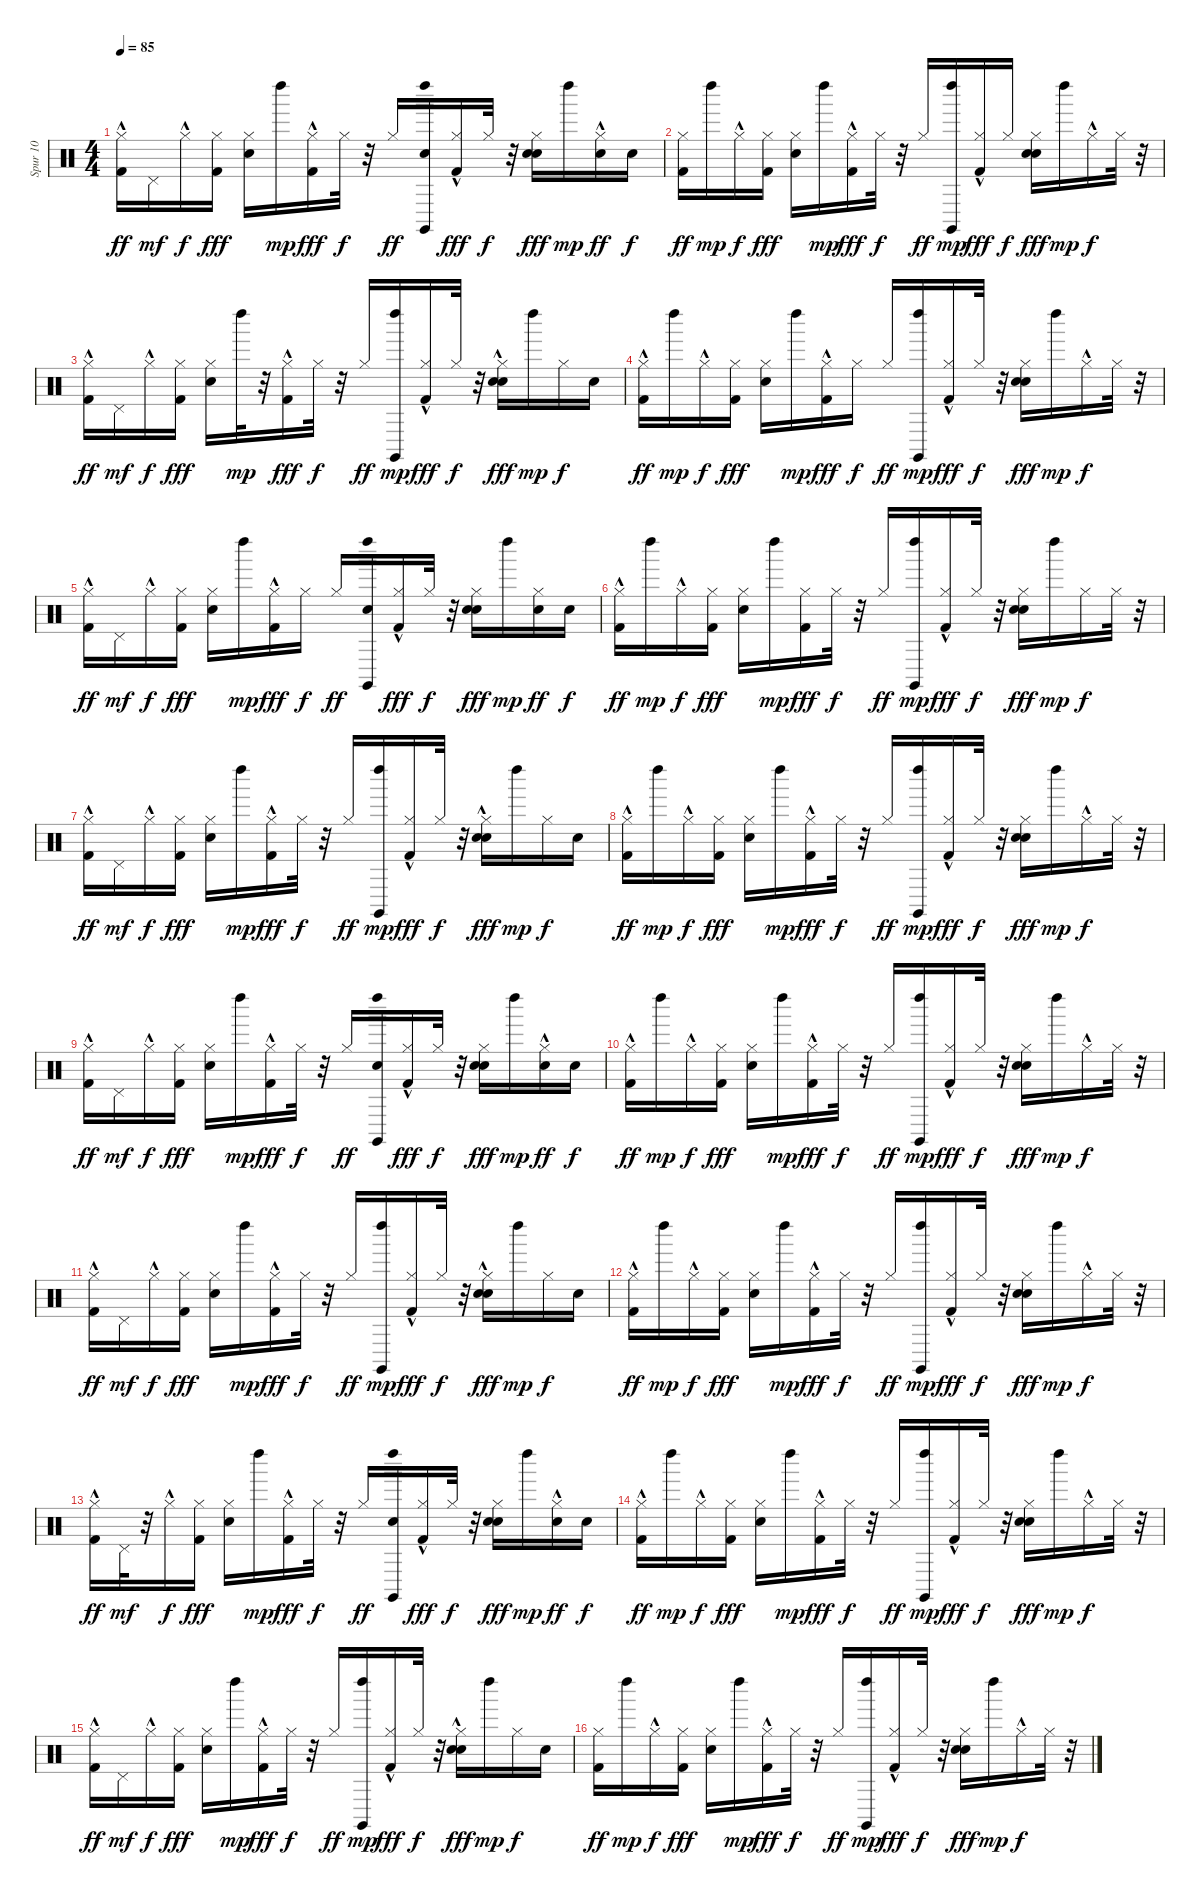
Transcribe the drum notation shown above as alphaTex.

\track ("Spur 10" "Spur 10") {instrument percussion}
\staff {score}
\articulation defaults
\ts (4 4)
\tempo 85
\clef neutral
\ks c
("Kick (hit) 2"{hac} "Hi-Hat (closed)").16{dy ff} "Pedal Hi-Hat (hit)".16{dy mf} "Hi-Hat (closed)"{hac}.16{dy f} ("Kick (hit) 2" "Hi-Hat (closed)").16{dy fff} ("Hi-Hat (closed)" "Snare (hit) 2").16 "Left Maraca (hit)".16{dy mp} ("Kick (hit) 2" "Hi-Hat (closed)"{hac}).16{dy fff} "Hi-Hat (closed)".32{dy f} r.32 "Hi-Hat (closed)".16{dy ff} ("Left Maraca (hit)" "Claves (hit)" "Snare (hit) 2").16 ("Kick (hit) 2"{hac} "Hi-Hat (closed)").16{dy fff} "Hi-Hat (closed)".32{dy f} r.32 ("Hi-Hat (closed)" "Snare (hit) 2" "Hand Clap (hit)").16{dy fff} "Left Maraca (hit)".16{dy mp} ("Hi-Hat (closed)" "Snare (hit) 2"{hac}).16{dy ff} "Snare (hit) 2".16{dy f} |
("Kick (hit) 2" "Hi-Hat (closed)").16{dy ff} "Left Maraca (hit)".16{dy mp} "Hi-Hat (closed)"{hac}.16{dy f} ("Kick (hit) 2" "Hi-Hat (closed)").16{dy fff} ("Hi-Hat (closed)" "Snare (hit) 2").16 "Left Maraca (hit)".16{dy mp} ("Kick (hit) 2" "Hi-Hat (closed)"{hac}).16{dy fff} "Hi-Hat (closed)".32{dy f} r.32 "Hi-Hat (closed)".16{dy ff} ("Left Maraca (hit)" "Claves (hit)").16{dy mp} ("Kick (hit) 2"{hac} "Hi-Hat (closed)"{hac}).16{dy fff} "Hi-Hat (closed)".16{dy f} ("Hi-Hat (closed)" "Snare (hit) 2" "Hand Clap (hit)").16{dy fff} "Left Maraca (hit)".16{dy mp} "Hi-Hat (closed)"{hac}.16{dy f} "Hi-Hat (closed)".32 r.32 |
("Kick (hit) 2"{hac} "Hi-Hat (closed)").16{dy ff} "Pedal Hi-Hat (hit)".16{dy mf} "Hi-Hat (closed)"{hac}.16{dy f} ("Kick (hit) 2" "Hi-Hat (closed)").16{dy fff} ("Hi-Hat (closed)" "Snare (hit) 2").16 "Left Maraca (hit)".32{dy mp} r.32 ("Kick (hit) 2" "Hi-Hat (closed)"{hac}).16{dy fff} "Hi-Hat (closed)".32{dy f} r.32 "Hi-Hat (closed)".16{dy ff} ("Left Maraca (hit)" "Claves (hit)").16{dy mp} ("Kick (hit) 2"{hac} "Hi-Hat (closed)"{hac}).16{dy fff} "Hi-Hat (closed)".32{dy f} r.32 ("Hi-Hat (closed)" "Snare (hit) 2"{hac} "Hand Clap (hit)").16{dy fff} "Left Maraca (hit)".16{dy mp} "Hi-Hat (closed)".16{dy f} "Snare (hit) 2".16 |
("Kick (hit) 2"{hac} "Hi-Hat (closed)").16{dy ff} "Left Maraca (hit)".16{dy mp} "Hi-Hat (closed)"{hac}.16{dy f} ("Kick (hit) 2" "Hi-Hat (closed)").16{dy fff} ("Hi-Hat (closed)" "Snare (hit) 2").16 "Left Maraca (hit)".16{dy mp} ("Kick (hit) 2" "Hi-Hat (closed)"{hac}).16{dy fff} "Hi-Hat (closed)".16{dy f} "Hi-Hat (closed)".16{dy ff} ("Left Maraca (hit)" "Claves (hit)").16{dy mp} ("Kick (hit) 2"{hac} "Hi-Hat (closed)"{hac}).16{dy fff} "Hi-Hat (closed)".32{dy f} r.32 ("Hi-Hat (closed)" "Snare (hit) 2" "Hand Clap (hit)").16{dy fff} "Left Maraca (hit)".16{dy mp} "Hi-Hat (closed)"{hac}.16{dy f} "Hi-Hat (closed)".32 r.32 |
("Kick (hit) 2"{hac} "Hi-Hat (closed)").16{dy ff} "Pedal Hi-Hat (hit)".16{dy mf} "Hi-Hat (closed)"{hac}.16{dy f} ("Kick (hit) 2" "Hi-Hat (closed)").16{dy fff} ("Hi-Hat (closed)" "Snare (hit) 2").16 "Left Maraca (hit)".16{dy mp} ("Kick (hit) 2" "Hi-Hat (closed)"{hac}).16{dy fff} "Hi-Hat (closed)".16{dy f} "Hi-Hat (closed)".16{dy ff} ("Left Maraca (hit)" "Claves (hit)" "Snare (hit) 2").16 ("Kick (hit) 2"{hac} "Hi-Hat (closed)"{hac}).16{dy fff} "Hi-Hat (closed)".32{dy f} r.32 ("Hi-Hat (closed)" "Snare (hit) 2" "Hand Clap (hit)").16{dy fff} "Left Maraca (hit)".16{dy mp} ("Hi-Hat (closed)" "Snare (hit) 2").16{dy ff} "Snare (hit) 2".16{dy f} |
("Kick (hit) 2"{hac} "Hi-Hat (closed)").16{dy ff} "Left Maraca (hit)".16{dy mp} "Hi-Hat (closed)"{hac}.16{dy f} ("Kick (hit) 2" "Hi-Hat (closed)").16{dy fff} ("Hi-Hat (closed)" "Snare (hit) 2").16 "Left Maraca (hit)".16{dy mp} ("Kick (hit) 2" "Hi-Hat (closed)").16{dy fff} "Hi-Hat (closed)".32{dy f} r.32 "Hi-Hat (closed)".16{dy ff} ("Left Maraca (hit)" "Claves (hit)").16{dy mp} ("Kick (hit) 2"{hac} "Hi-Hat (closed)"{hac}).16{dy fff} "Hi-Hat (closed)".32{dy f} r.32 ("Hi-Hat (closed)" "Snare (hit) 2" "Hand Clap (hit)").16{dy fff} "Left Maraca (hit)".16{dy mp} "Hi-Hat (closed)".16{dy f} "Hi-Hat (closed)".32 r.32 |
("Kick (hit) 2"{hac} "Hi-Hat (closed)").16{dy ff} "Pedal Hi-Hat (hit)".16{dy mf} "Hi-Hat (closed)"{hac}.16{dy f} ("Kick (hit) 2" "Hi-Hat (closed)").16{dy fff} ("Hi-Hat (closed)" "Snare (hit) 2").16 "Left Maraca (hit)".16{dy mp} ("Kick (hit) 2" "Hi-Hat (closed)"{hac}).16{dy fff} "Hi-Hat (closed)".32{dy f} r.32 "Hi-Hat (closed)".16{dy ff} ("Left Maraca (hit)" "Claves (hit)").16{dy mp} ("Kick (hit) 2"{hac} "Hi-Hat (closed)"{hac}).16{dy fff} "Hi-Hat (closed)".32{dy f} r.32 ("Hi-Hat (closed)" "Snare (hit) 2"{hac} "Hand Clap (hit)").16{dy fff} "Left Maraca (hit)".16{dy mp} "Hi-Hat (closed)".16{dy f} "Snare (hit) 2".16 |
("Kick (hit) 2"{hac} "Hi-Hat (closed)").16{dy ff} "Left Maraca (hit)".16{dy mp} "Hi-Hat (closed)"{hac}.16{dy f} ("Kick (hit) 2" "Hi-Hat (closed)").16{dy fff} ("Hi-Hat (closed)" "Snare (hit) 2").16 "Left Maraca (hit)".16{dy mp} ("Kick (hit) 2" "Hi-Hat (closed)"{hac}).16{dy fff} "Hi-Hat (closed)".32{dy f} r.32 "Hi-Hat (closed)".16{dy ff} ("Left Maraca (hit)" "Claves (hit)").16{dy mp} ("Kick (hit) 2" "Hi-Hat (closed)"{hac}).16{dy fff} "Hi-Hat (closed)".32{dy f} r.32 ("Hi-Hat (closed)" "Snare (hit) 2" "Hand Clap (hit)").16{dy fff} "Left Maraca (hit)".16{dy mp} "Hi-Hat (closed)"{hac}.16{dy f} "Hi-Hat (closed)".32 r.32 |
("Kick (hit) 2"{hac} "Hi-Hat (closed)").16{dy ff} "Pedal Hi-Hat (hit)".16{dy mf} "Hi-Hat (closed)"{hac}.16{dy f} ("Kick (hit) 2" "Hi-Hat (closed)").16{dy fff} ("Hi-Hat (closed)" "Snare (hit) 2").16 "Left Maraca (hit)".16{dy mp} ("Kick (hit) 2" "Hi-Hat (closed)"{hac}).16{dy fff} "Hi-Hat (closed)".32{dy f} r.32 "Hi-Hat (closed)".16{dy ff} ("Left Maraca (hit)" "Claves (hit)" "Snare (hit) 2").16 ("Kick (hit) 2"{hac} "Hi-Hat (closed)"{hac}).16{dy fff} "Hi-Hat (closed)".32{dy f} r.32 ("Hi-Hat (closed)" "Snare (hit) 2" "Hand Clap (hit)").16{dy fff} "Left Maraca (hit)".16{dy mp} ("Hi-Hat (closed)" "Snare (hit) 2"{hac}).16{dy ff} "Snare (hit) 2".16{dy f} |
("Kick (hit) 2"{hac} "Hi-Hat (closed)").16{dy ff} "Left Maraca (hit)".16{dy mp} "Hi-Hat (closed)"{hac}.16{dy f} ("Kick (hit) 2" "Hi-Hat (closed)").16{dy fff} ("Hi-Hat (closed)" "Snare (hit) 2").16 "Left Maraca (hit)".16{dy mp} ("Kick (hit) 2" "Hi-Hat (closed)"{hac}).16{dy fff} "Hi-Hat (closed)".32{dy f} r.32 "Hi-Hat (closed)".16{dy ff} ("Left Maraca (hit)" "Claves (hit)").16{dy mp} ("Kick (hit) 2"{hac} "Hi-Hat (closed)"{hac}).16{dy fff} "Hi-Hat (closed)".32{dy f} r.32 ("Hi-Hat (closed)" "Snare (hit) 2" "Hand Clap (hit)").16{dy fff} "Left Maraca (hit)".16{dy mp} "Hi-Hat (closed)"{hac}.16{dy f} "Hi-Hat (closed)".32 r.32 |
("Kick (hit) 2"{hac} "Hi-Hat (closed)").16{dy ff} "Pedal Hi-Hat (hit)".16{dy mf} "Hi-Hat (closed)"{hac}.16{dy f} ("Kick (hit) 2" "Hi-Hat (closed)").16{dy fff} ("Hi-Hat (closed)" "Snare (hit) 2").16 "Left Maraca (hit)".16{dy mp} ("Kick (hit) 2" "Hi-Hat (closed)"{hac}).16{dy fff} "Hi-Hat (closed)".32{dy f} r.32 "Hi-Hat (closed)".16{dy ff} ("Left Maraca (hit)" "Claves (hit)").16{dy mp} ("Kick (hit) 2"{hac} "Hi-Hat (closed)"{hac}).16{dy fff} "Hi-Hat (closed)".32{dy f} r.32 ("Hi-Hat (closed)" "Snare (hit) 2"{hac} "Hand Clap (hit)").16{dy fff} "Left Maraca (hit)".16{dy mp} "Hi-Hat (closed)".16{dy f} "Snare (hit) 2".16 |
("Kick (hit) 2"{hac} "Hi-Hat (closed)").16{dy ff} "Left Maraca (hit)".16{dy mp} "Hi-Hat (closed)"{hac}.16{dy f} ("Kick (hit) 2" "Hi-Hat (closed)").16{dy fff} ("Hi-Hat (closed)" "Snare (hit) 2").16 "Left Maraca (hit)".16{dy mp} ("Kick (hit) 2" "Hi-Hat (closed)"{hac}).16{dy fff} "Hi-Hat (closed)".32{dy f} r.32 "Hi-Hat (closed)".16{dy ff} ("Left Maraca (hit)" "Claves (hit)").16{dy mp} ("Kick (hit) 2"{hac} "Hi-Hat (closed)"{hac}).16{dy fff} "Hi-Hat (closed)".32{dy f} r.32 ("Hi-Hat (closed)" "Snare (hit) 2" "Hand Clap (hit)").16{dy fff} "Left Maraca (hit)".16{dy mp} "Hi-Hat (closed)"{hac}.16{dy f} "Hi-Hat (closed)".32 r.32 |
("Kick (hit) 2"{hac} "Hi-Hat (closed)").16{dy ff} "Pedal Hi-Hat (hit)".32{dy mf} r.32 "Hi-Hat (closed)"{hac}.16{dy f} ("Kick (hit) 2" "Hi-Hat (closed)").16{dy fff} ("Hi-Hat (closed)" "Snare (hit) 2").16 "Left Maraca (hit)".16{dy mp} ("Kick (hit) 2" "Hi-Hat (closed)"{hac}).16{dy fff} "Hi-Hat (closed)".32{dy f} r.32 "Hi-Hat (closed)".16{dy ff} ("Left Maraca (hit)" "Claves (hit)" "Snare (hit) 2").16 ("Kick (hit) 2" "Hi-Hat (closed)"{hac}).16{dy fff} "Hi-Hat (closed)".32{dy f} r.32 ("Hi-Hat (closed)" "Snare (hit) 2" "Hand Clap (hit)").16{dy fff} "Left Maraca (hit)".16{dy mp} ("Hi-Hat (closed)" "Snare (hit) 2"{hac}).16{dy ff} "Snare (hit) 2".16{dy f} |
("Kick (hit) 2"{hac} "Hi-Hat (closed)").16{dy ff} "Left Maraca (hit)".16{dy mp} "Hi-Hat (closed)"{hac}.16{dy f} ("Kick (hit) 2" "Hi-Hat (closed)").16{dy fff} ("Hi-Hat (closed)" "Snare (hit) 2").16 "Left Maraca (hit)".16{dy mp} ("Kick (hit) 2" "Hi-Hat (closed)"{hac}).16{dy fff} "Hi-Hat (closed)".32{dy f} r.32 "Hi-Hat (closed)".16{dy ff} ("Left Maraca (hit)" "Claves (hit)").16{dy mp} ("Kick (hit) 2"{hac} "Hi-Hat (closed)"{hac}).16{dy fff} "Hi-Hat (closed)".32{dy f} r.32 ("Hi-Hat (closed)" "Snare (hit) 2" "Hand Clap (hit)").16{dy fff} "Left Maraca (hit)".16{dy mp} "Hi-Hat (closed)"{hac}.16{dy f} "Hi-Hat (closed)".32 r.32 |
("Kick (hit) 2"{hac} "Hi-Hat (closed)").16{dy ff} "Pedal Hi-Hat (hit)".16{dy mf} "Hi-Hat (closed)"{hac}.16{dy f} ("Kick (hit) 2" "Hi-Hat (closed)").16{dy fff} ("Hi-Hat (closed)" "Snare (hit) 2").16 "Left Maraca (hit)".16{dy mp} ("Kick (hit) 2" "Hi-Hat (closed)"{hac}).16{dy fff} "Hi-Hat (closed)".32{dy f} r.32 "Hi-Hat (closed)".16{dy ff} ("Left Maraca (hit)" "Claves (hit)").16{dy mp} ("Kick (hit) 2"{hac} "Hi-Hat (closed)"{hac}).16{dy fff} "Hi-Hat (closed)".32{dy f} r.32 ("Hi-Hat (closed)" "Snare (hit) 2"{hac} "Hand Clap (hit)").16{dy fff} "Left Maraca (hit)".16{dy mp} "Hi-Hat (closed)".16{dy f} "Snare (hit) 2".16 |
("Kick (hit) 2" "Hi-Hat (closed)").16{dy ff} "Left Maraca (hit)".16{dy mp} "Hi-Hat (closed)"{hac}.16{dy f} ("Kick (hit) 2" "Hi-Hat (closed)").16{dy fff} ("Hi-Hat (closed)" "Snare (hit) 2").16 "Left Maraca (hit)".16{dy mp} ("Kick (hit) 2" "Hi-Hat (closed)"{hac}).16{dy fff} "Hi-Hat (closed)".32{dy f} r.32 "Hi-Hat (closed)".16{dy ff} ("Left Maraca (hit)" "Claves (hit)").16{dy mp} ("Kick (hit) 2"{hac} "Hi-Hat (closed)"{hac}).16{dy fff} "Hi-Hat (closed)".32{dy f} r.32 ("Hi-Hat (closed)" "Snare (hit) 2" "Hand Clap (hit)").16{dy fff} "Left Maraca (hit)".16{dy mp} "Hi-Hat (closed)"{hac}.16{dy f} "Hi-Hat (closed)".32 r.32
